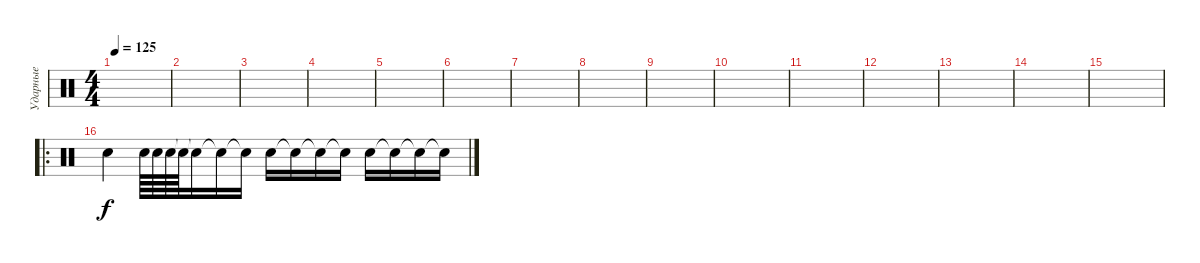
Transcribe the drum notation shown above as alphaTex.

\track ("Ударные" "Ударные") {instrument percussion}
\staff {score}
\articulation defaults
\ts (4 4)
\tempo 125
\clef neutral
\ks c
|
|
|
|
|
|
|
|
|
|
|
|
|
|
|
\ro "Electric Snare (hit)".4 "Electric Snare (hit)".64 "Electric Snare (hit)".64 "Electric Snare (hit)".64 "Snare (hit)"{t}.64 "Snare (hit)"{t}.16 "Electric Snare (hit)"{t}.16 "Electric Snare (hit)"{t}.16 "Electric Snare (hit)".16 "Electric Snare (hit)"{t}.16 "Electric Snare (hit)"{t}.16 "Snare (hit)"{t}.16 "Electric Snare (hit)".16 "Snare (hit)"{t}.16 "Snare (hit)"{t}.16 "Snare (hit)"{t}.16
